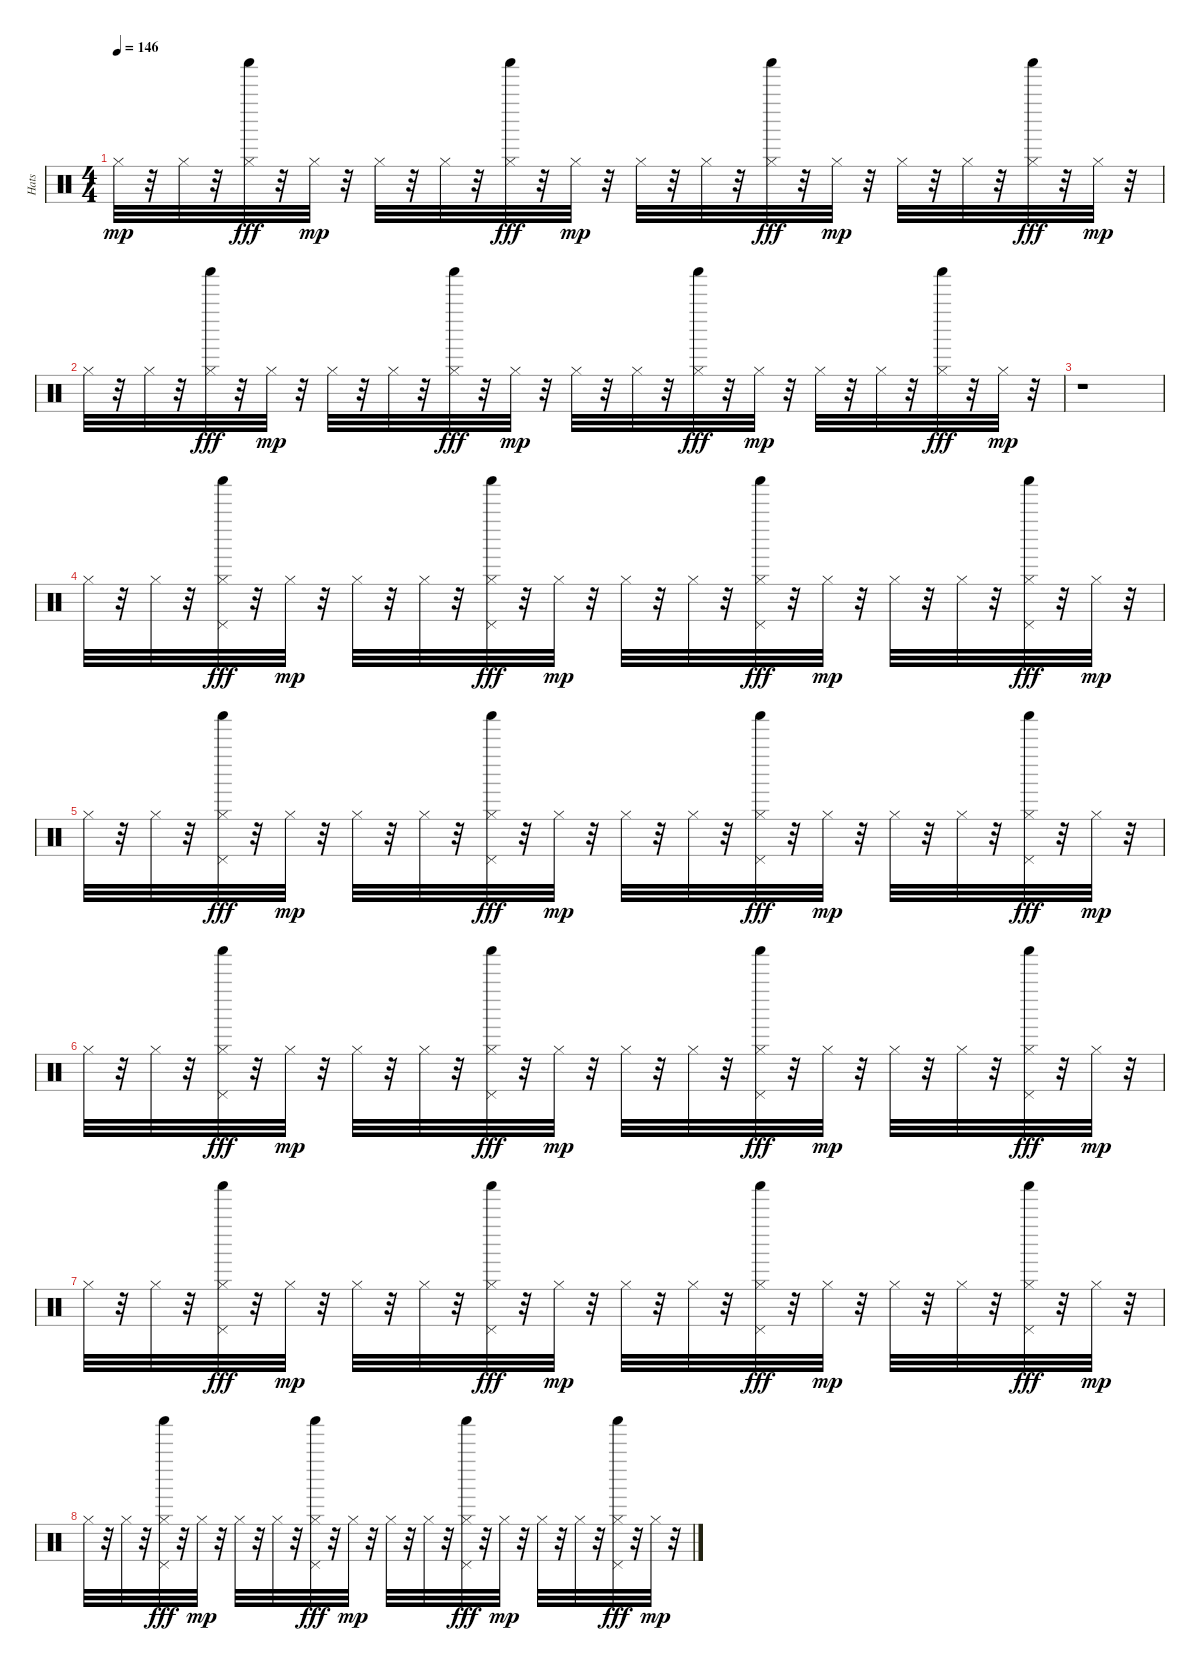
\track ("Hats" "Hats") {instrument percussion}
\staff {score}
\articulation defaults
\ts (4 4)
\tempo 146
\clef neutral
\ks c "Hi-Hat (closed)".32{dy mp}
r.32 "Hi-Hat (closed)".32 r.32 ("Hi-Hat (closed)" "Shaker (hit)").32{dy fff} r.32 "Hi-Hat (closed)".32{dy mp} r.32 "Hi-Hat (closed)".32 r.32 "Hi-Hat (closed)".32 r.32 ("Hi-Hat (closed)" "Shaker (hit)").32{dy fff} r.32 "Hi-Hat (closed)".32{dy mp} r.32 "Hi-Hat (closed)".32 r.32 "Hi-Hat (closed)".32 r.32 ("Hi-Hat (closed)" "Shaker (hit)").32{dy fff} r.32 "Hi-Hat (closed)".32{dy mp} r.32 "Hi-Hat (closed)".32 r.32 "Hi-Hat (closed)".32 r.32 ("Hi-Hat (closed)" "Shaker (hit)").32{dy fff} r.32 "Hi-Hat (closed)".32{dy mp} r.32 |
"Hi-Hat (closed)".32 r.32 "Hi-Hat (closed)".32 r.32 ("Hi-Hat (closed)" "Shaker (hit)").32{dy fff} r.32 "Hi-Hat (closed)".32{dy mp} r.32 "Hi-Hat (closed)".32 r.32 "Hi-Hat (closed)".32 r.32 ("Hi-Hat (closed)" "Shaker (hit)").32{dy fff} r.32 "Hi-Hat (closed)".32{dy mp} r.32 "Hi-Hat (closed)".32 r.32 "Hi-Hat (closed)".32 r.32 ("Hi-Hat (closed)" "Shaker (hit)").32{dy fff} r.32 "Hi-Hat (closed)".32{dy mp} r.32 "Hi-Hat (closed)".32 r.32 "Hi-Hat (closed)".32 r.32 ("Hi-Hat (closed)" "Shaker (hit)").32{dy fff} r.32 "Hi-Hat (closed)".32{dy mp} r.32 |
r.1 |
"Hi-Hat (closed)".32 r.32 "Hi-Hat (closed)".32 r.32 ("Hi-Hat (closed)" "Pedal Hi-Hat (hit)" "Shaker (hit)").32{dy fff} r.32 "Hi-Hat (closed)".32{dy mp} r.32 "Hi-Hat (closed)".32 r.32 "Hi-Hat (closed)".32 r.32 ("Hi-Hat (closed)" "Pedal Hi-Hat (hit)" "Shaker (hit)").32{dy fff} r.32 "Hi-Hat (closed)".32{dy mp} r.32 "Hi-Hat (closed)".32 r.32 "Hi-Hat (closed)".32 r.32 ("Hi-Hat (closed)" "Pedal Hi-Hat (hit)" "Shaker (hit)").32{dy fff} r.32 "Hi-Hat (closed)".32{dy mp} r.32 "Hi-Hat (closed)".32 r.32 "Hi-Hat (closed)".32 r.32 ("Hi-Hat (closed)" "Pedal Hi-Hat (hit)" "Shaker (hit)").32{dy fff} r.32 "Hi-Hat (closed)".32{dy mp} r.32 |
"Hi-Hat (closed)".32 r.32 "Hi-Hat (closed)".32 r.32 ("Hi-Hat (closed)" "Pedal Hi-Hat (hit)" "Shaker (hit)").32{dy fff} r.32 "Hi-Hat (closed)".32{dy mp} r.32 "Hi-Hat (closed)".32 r.32 "Hi-Hat (closed)".32 r.32 ("Hi-Hat (closed)" "Pedal Hi-Hat (hit)" "Shaker (hit)").32{dy fff} r.32 "Hi-Hat (closed)".32{dy mp} r.32 "Hi-Hat (closed)".32 r.32 "Hi-Hat (closed)".32 r.32 ("Hi-Hat (closed)" "Pedal Hi-Hat (hit)" "Shaker (hit)").32{dy fff} r.32 "Hi-Hat (closed)".32{dy mp} r.32 "Hi-Hat (closed)".32 r.32 "Hi-Hat (closed)".32 r.32 ("Hi-Hat (closed)" "Pedal Hi-Hat (hit)" "Shaker (hit)").32{dy fff} r.32 "Hi-Hat (closed)".32{dy mp} r.32 |
"Hi-Hat (closed)".32 r.32 "Hi-Hat (closed)".32 r.32 ("Hi-Hat (closed)" "Pedal Hi-Hat (hit)" "Shaker (hit)").32{dy fff} r.32 "Hi-Hat (closed)".32{dy mp} r.32 "Hi-Hat (closed)".32 r.32 "Hi-Hat (closed)".32 r.32 ("Hi-Hat (closed)" "Pedal Hi-Hat (hit)" "Shaker (hit)").32{dy fff} r.32 "Hi-Hat (closed)".32{dy mp} r.32 "Hi-Hat (closed)".32 r.32 "Hi-Hat (closed)".32 r.32 ("Hi-Hat (closed)" "Pedal Hi-Hat (hit)" "Shaker (hit)").32{dy fff} r.32 "Hi-Hat (closed)".32{dy mp} r.32 "Hi-Hat (closed)".32 r.32 "Hi-Hat (closed)".32 r.32 ("Hi-Hat (closed)" "Pedal Hi-Hat (hit)" "Shaker (hit)").32{dy fff} r.32 "Hi-Hat (closed)".32{dy mp} r.32 |
"Hi-Hat (closed)".32 r.32 "Hi-Hat (closed)".32 r.32 ("Hi-Hat (closed)" "Pedal Hi-Hat (hit)" "Shaker (hit)").32{dy fff} r.32 "Hi-Hat (closed)".32{dy mp} r.32 "Hi-Hat (closed)".32 r.32 "Hi-Hat (closed)".32 r.32 ("Hi-Hat (closed)" "Pedal Hi-Hat (hit)" "Shaker (hit)").32{dy fff} r.32 "Hi-Hat (closed)".32{dy mp} r.32 "Hi-Hat (closed)".32 r.32 "Hi-Hat (closed)".32 r.32 ("Hi-Hat (closed)" "Pedal Hi-Hat (hit)" "Shaker (hit)").32{dy fff} r.32 "Hi-Hat (closed)".32{dy mp} r.32 "Hi-Hat (closed)".32 r.32 "Hi-Hat (closed)".32 r.32 ("Hi-Hat (closed)" "Pedal Hi-Hat (hit)" "Shaker (hit)").32{dy fff} r.32 "Hi-Hat (closed)".32{dy mp} r.32 |
"Hi-Hat (closed)".32 r.32 "Hi-Hat (closed)".32 r.32 ("Hi-Hat (closed)" "Pedal Hi-Hat (hit)" "Shaker (hit)").32{dy fff} r.32 "Hi-Hat (closed)".32{dy mp} r.32 "Hi-Hat (closed)".32 r.32 "Hi-Hat (closed)".32 r.32 ("Hi-Hat (closed)" "Pedal Hi-Hat (hit)" "Shaker (hit)").32{dy fff} r.32 "Hi-Hat (closed)".32{dy mp} r.32 "Hi-Hat (closed)".32 r.32 "Hi-Hat (closed)".32 r.32 ("Hi-Hat (closed)" "Pedal Hi-Hat (hit)" "Shaker (hit)").32{dy fff} r.32 "Hi-Hat (closed)".32{dy mp} r.32 "Hi-Hat (closed)".32 r.32 "Hi-Hat (closed)".32 r.32 ("Hi-Hat (closed)" "Pedal Hi-Hat (hit)" "Shaker (hit)").32{dy fff} r.32 "Hi-Hat (closed)".32{dy mp} r.32
